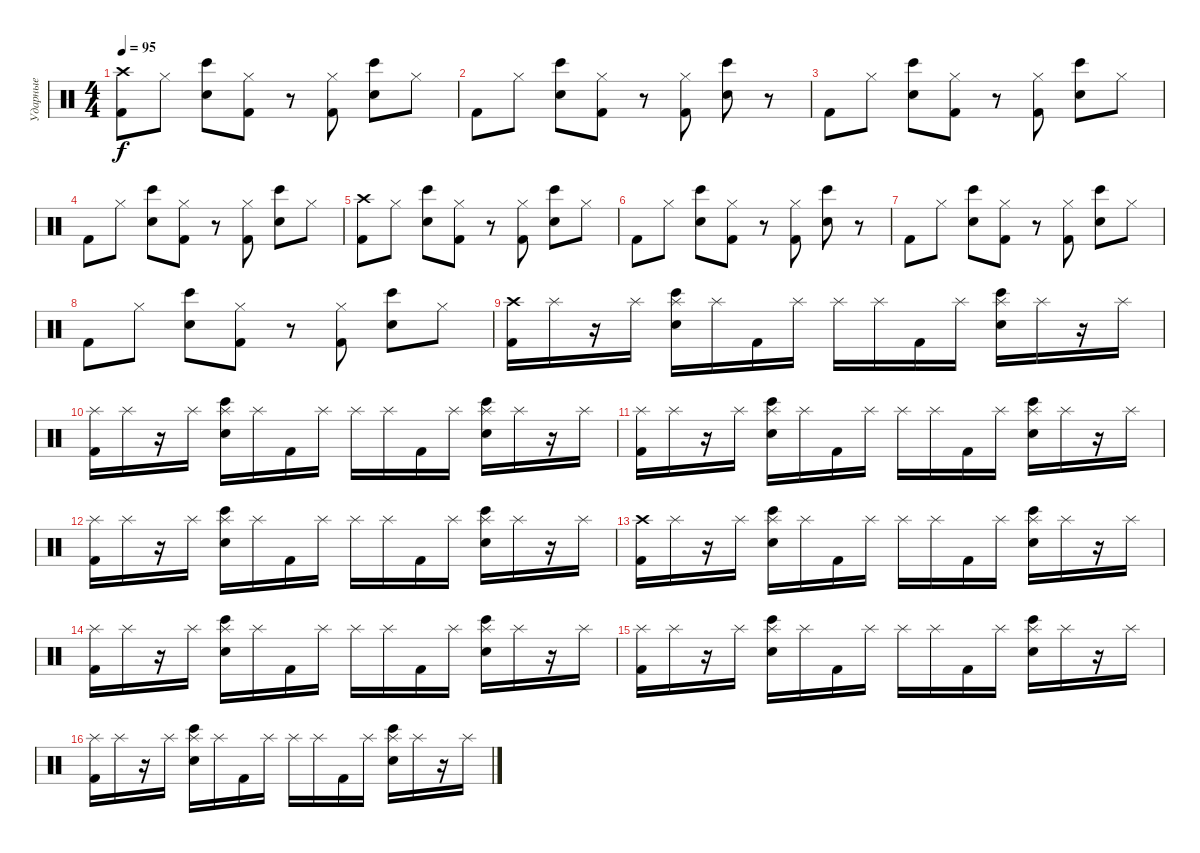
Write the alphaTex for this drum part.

\track ("Ударные" "Ударные") {instrument percussion}
\staff {score}
\articulation defaults
\ts (4 4)
\tempo 95
\clef neutral
\ks c
("Crash high (hit)" "Kick (hit) 2").8{dy f} "Hi-Hat (closed)".8 ("Electric Snare (hit)" "Bongo High (hit)").8 ("Hi-Hat (closed)" "Kick (hit) 2").8 r.8 ("Hi-Hat (closed)" "Kick (hit) 2").8 ("Electric Snare (hit)" "Bongo High (hit)").8 "Hi-Hat (closed)".8 |
"Kick (hit) 2".8 "Hi-Hat (closed)".8 ("Electric Snare (hit)" "Bongo High (hit)").8 ("Hi-Hat (closed)" "Kick (hit) 2").8 r.8 ("Hi-Hat (closed)" "Kick (hit) 2").8 ("Electric Snare (hit)" "Bongo High (hit)").8 r.8 |
"Kick (hit) 2".8 "Hi-Hat (closed)".8 ("Electric Snare (hit)" "Bongo High (hit)").8 ("Hi-Hat (closed)" "Kick (hit) 2").8 r.8 ("Hi-Hat (closed)" "Kick (hit) 2").8 ("Electric Snare (hit)" "Bongo High (hit)").8 "Hi-Hat (closed)".8 |
"Kick (hit) 2".8 "Hi-Hat (closed)".8 ("Electric Snare (hit)" "Bongo High (hit)").8 ("Hi-Hat (closed)" "Kick (hit) 2").8 r.8 ("Hi-Hat (closed)" "Kick (hit) 2").8 ("Electric Snare (hit)" "Bongo High (hit)").8 "Hi-Hat (closed)".8 |
("Crash high (hit)" "Kick (hit) 2").8 "Hi-Hat (closed)".8 ("Electric Snare (hit)" "Bongo High (hit)").8 ("Hi-Hat (closed)" "Kick (hit) 2").8 r.8 ("Hi-Hat (closed)" "Kick (hit) 2").8 ("Electric Snare (hit)" "Bongo High (hit)").8 "Hi-Hat (closed)".8 |
"Kick (hit) 2".8 "Hi-Hat (closed)".8 ("Electric Snare (hit)" "Bongo High (hit)").8 ("Hi-Hat (closed)" "Kick (hit) 2").8 r.8 ("Hi-Hat (closed)" "Kick (hit) 2").8 ("Electric Snare (hit)" "Bongo High (hit)").8 r.8 |
"Kick (hit) 2".8 "Hi-Hat (closed)".8 ("Electric Snare (hit)" "Bongo High (hit)").8 ("Hi-Hat (closed)" "Kick (hit) 2").8 r.8 ("Hi-Hat (closed)" "Kick (hit) 2").8 ("Electric Snare (hit)" "Bongo High (hit)").8 "Hi-Hat (closed)".8 |
"Kick (hit) 2".8 "Hi-Hat (closed)".8 ("Electric Snare (hit)" "Bongo High (hit)").8 ("Hi-Hat (closed)" "Kick (hit) 2").8 r.8 ("Hi-Hat (closed)" "Kick (hit) 2").8 ("Electric Snare (hit)" "Bongo High (hit)").8 "Hi-Hat (closed)".8 |
("Crash high (hit)" "Kick (hit) 2").16 "Splash (hit)".16 r.16 "Splash (hit)".16 ("Splash (hit)" "Electric Snare (hit)" "Bongo High (hit)").16 "Splash (hit)".16 "Kick (hit) 2".16 "Splash (hit)".16 "Splash (hit)".16 "Splash (hit)".16 "Kick (hit) 2".16 "Splash (hit)".16 ("Splash (hit)" "Electric Snare (hit)" "Bongo High (hit)").16 "Splash (hit)".16 r.16 "Splash (hit)".16 |
("Splash (hit)" "Kick (hit) 2").16 "Splash (hit)".16 r.16 "Splash (hit)".16 ("Splash (hit)" "Electric Snare (hit)" "Bongo High (hit)").16 "Splash (hit)".16 "Kick (hit) 2".16 "Splash (hit)".16 "Splash (hit)".16 "Splash (hit)".16 "Kick (hit) 2".16 "Splash (hit)".16 ("Splash (hit)" "Electric Snare (hit)" "Bongo High (hit)").16 "Splash (hit)".16 r.16 "Splash (hit)".16 |
("Splash (hit)" "Kick (hit) 2").16 "Splash (hit)".16 r.16 "Splash (hit)".16 ("Splash (hit)" "Electric Snare (hit)" "Bongo High (hit)").16 "Splash (hit)".16 "Kick (hit) 2".16 "Splash (hit)".16 "Splash (hit)".16 "Splash (hit)".16 "Kick (hit) 2".16 "Splash (hit)".16 ("Splash (hit)" "Electric Snare (hit)" "Bongo High (hit)").16 "Splash (hit)".16 r.16 "Splash (hit)".16 |
("Splash (hit)" "Kick (hit) 2").16 "Splash (hit)".16 r.16 "Splash (hit)".16 ("Splash (hit)" "Electric Snare (hit)" "Bongo High (hit)").16 "Splash (hit)".16 "Kick (hit) 2".16 "Splash (hit)".16 "Splash (hit)".16 "Splash (hit)".16 "Kick (hit) 2".16 "Splash (hit)".16 ("Splash (hit)" "Electric Snare (hit)" "Bongo High (hit)").16 "Splash (hit)".16 r.16 "Splash (hit)".16 |
("Crash high (hit)" "Kick (hit) 2").16 "Splash (hit)".16 r.16 "Splash (hit)".16 ("Splash (hit)" "Electric Snare (hit)" "Bongo High (hit)").16 "Splash (hit)".16 "Kick (hit) 2".16 "Splash (hit)".16 "Splash (hit)".16 "Splash (hit)".16 "Kick (hit) 2".16 "Splash (hit)".16 ("Splash (hit)" "Electric Snare (hit)" "Bongo High (hit)").16 "Splash (hit)".16 r.16 "Splash (hit)".16 |
("Splash (hit)" "Kick (hit) 2").16 "Splash (hit)".16 r.16 "Splash (hit)".16 ("Splash (hit)" "Electric Snare (hit)" "Bongo High (hit)").16 "Splash (hit)".16 "Kick (hit) 2".16 "Splash (hit)".16 "Splash (hit)".16 "Splash (hit)".16 "Kick (hit) 2".16 "Splash (hit)".16 ("Splash (hit)" "Electric Snare (hit)" "Bongo High (hit)").16 "Splash (hit)".16 r.16 "Splash (hit)".16 |
("Splash (hit)" "Kick (hit) 2").16 "Splash (hit)".16 r.16 "Splash (hit)".16 ("Splash (hit)" "Electric Snare (hit)" "Bongo High (hit)").16 "Splash (hit)".16 "Kick (hit) 2".16 "Splash (hit)".16 "Splash (hit)".16 "Splash (hit)".16 "Kick (hit) 2".16 "Splash (hit)".16 ("Splash (hit)" "Electric Snare (hit)" "Bongo High (hit)").16 "Splash (hit)".16 r.16 "Splash (hit)".16 |
("Splash (hit)" "Kick (hit) 2").16 "Splash (hit)".16 r.16 "Splash (hit)".16 ("Splash (hit)" "Electric Snare (hit)" "Bongo High (hit)").16 "Splash (hit)".16 "Kick (hit) 2".16 "Splash (hit)".16 "Splash (hit)".16 "Splash (hit)".16 "Kick (hit) 2".16 "Splash (hit)".16 ("Splash (hit)" "Electric Snare (hit)" "Bongo High (hit)").16 "Splash (hit)".16 r.16 "Splash (hit)".16
